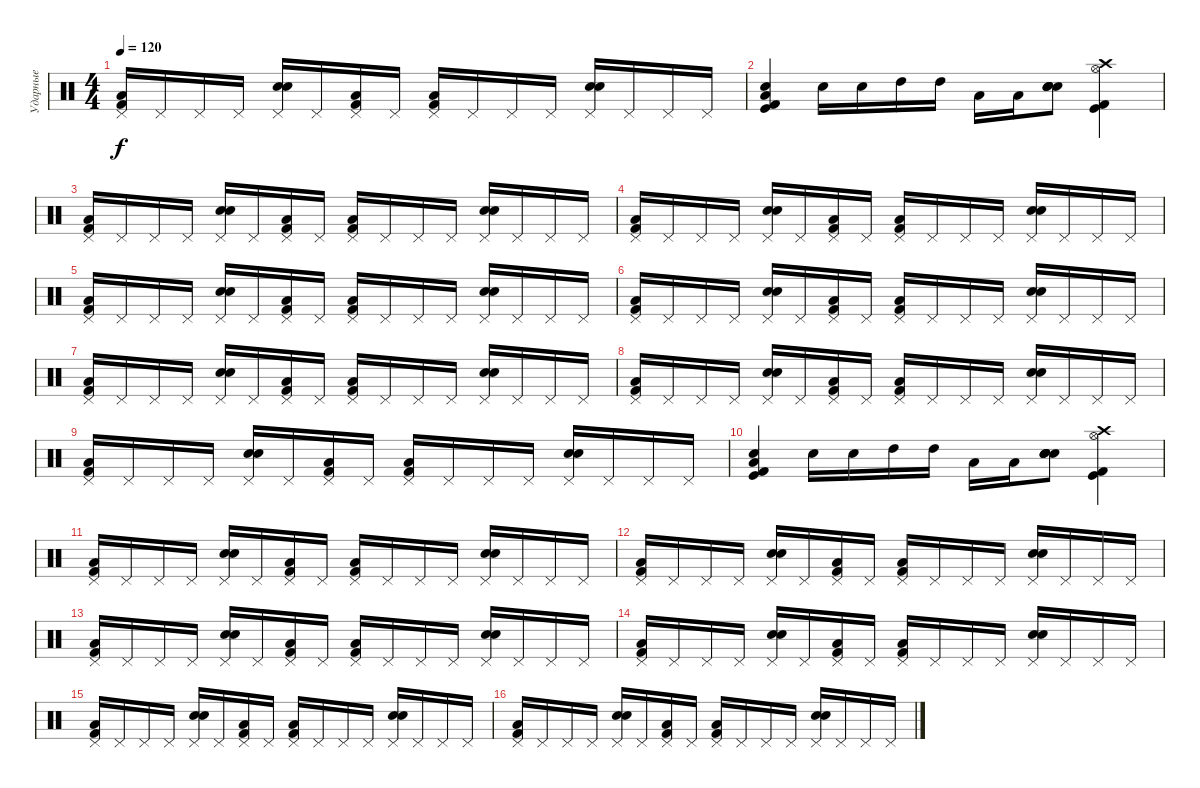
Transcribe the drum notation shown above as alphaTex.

\track ("Ударные" "Ударные") {instrument percussion}
\staff {score}
\articulation defaults
\ts (4 4)
\tempo 120
\clef neutral
\ks c
("Kick (hit) 2" "Low Floor Tom (hit)" "Pedal Hi-Hat (hit)").16{dy f} "Pedal Hi-Hat (hit)".16 "Pedal Hi-Hat (hit)".16 "Pedal Hi-Hat (hit)".16 ("Electric Snare (hit)" "Electric Snare (hit)" "Pedal Hi-Hat (hit)").16 "Pedal Hi-Hat (hit)".16 ("Kick (hit) 2" "Low Floor Tom (hit)" "Pedal Hi-Hat (hit)").16 "Pedal Hi-Hat (hit)".16 ("Kick (hit) 2" "Low Floor Tom (hit)" "Pedal Hi-Hat (hit)").16 "Pedal Hi-Hat (hit)".16 "Pedal Hi-Hat (hit)".16 "Pedal Hi-Hat (hit)".16 ("Electric Snare (hit)" "Electric Snare (hit)" "Pedal Hi-Hat (hit)").16 "Pedal Hi-Hat (hit)".16 "Pedal Hi-Hat (hit)".16 "Pedal Hi-Hat (hit)".16 |
("Low Floor Tom (hit)" "Kick (hit)" "Snare (hit) 2" "Kick (hit) 2").4 "Electric Snare (hit)".16 "Electric Snare (hit)".16 "High Tom (hit)".16 "High Tom (hit)".16 "Low Tom (hit)".16 "Low Tom (hit)".16 ("Snare (hit) 2" "Snare (hit) 2" "Snare (hit) 2" "Snare (hit) 2").8 ("Hi-Hat (open)" "Crash high (hit)" "Kick (hit)" "Kick (hit) 2").4 |
("Kick (hit) 2" "Low Floor Tom (hit)" "Pedal Hi-Hat (hit)").16 "Pedal Hi-Hat (hit)".16 "Pedal Hi-Hat (hit)".16 "Pedal Hi-Hat (hit)".16 ("Electric Snare (hit)" "Electric Snare (hit)" "Pedal Hi-Hat (hit)").16 "Pedal Hi-Hat (hit)".16 ("Kick (hit) 2" "Low Floor Tom (hit)" "Pedal Hi-Hat (hit)").16 "Pedal Hi-Hat (hit)".16 ("Kick (hit) 2" "Low Floor Tom (hit)" "Pedal Hi-Hat (hit)").16 "Pedal Hi-Hat (hit)".16 "Pedal Hi-Hat (hit)".16 "Pedal Hi-Hat (hit)".16 ("Electric Snare (hit)" "Electric Snare (hit)" "Pedal Hi-Hat (hit)").16 "Pedal Hi-Hat (hit)".16 "Pedal Hi-Hat (hit)".16 "Pedal Hi-Hat (hit)".16 |
("Kick (hit) 2" "Low Floor Tom (hit)" "Pedal Hi-Hat (hit)").16 "Pedal Hi-Hat (hit)".16 "Pedal Hi-Hat (hit)".16 "Pedal Hi-Hat (hit)".16 ("Electric Snare (hit)" "Electric Snare (hit)" "Pedal Hi-Hat (hit)").16 "Pedal Hi-Hat (hit)".16 ("Kick (hit) 2" "Low Floor Tom (hit)" "Pedal Hi-Hat (hit)").16 "Pedal Hi-Hat (hit)".16 ("Kick (hit) 2" "Low Floor Tom (hit)" "Pedal Hi-Hat (hit)").16 "Pedal Hi-Hat (hit)".16 "Pedal Hi-Hat (hit)".16 "Pedal Hi-Hat (hit)".16 ("Electric Snare (hit)" "Electric Snare (hit)" "Pedal Hi-Hat (hit)").16 "Pedal Hi-Hat (hit)".16 "Pedal Hi-Hat (hit)".16 "Pedal Hi-Hat (hit)".16 |
("Kick (hit) 2" "Low Floor Tom (hit)" "Pedal Hi-Hat (hit)").16 "Pedal Hi-Hat (hit)".16 "Pedal Hi-Hat (hit)".16 "Pedal Hi-Hat (hit)".16 ("Electric Snare (hit)" "Electric Snare (hit)" "Pedal Hi-Hat (hit)").16 "Pedal Hi-Hat (hit)".16 ("Kick (hit) 2" "Low Floor Tom (hit)" "Pedal Hi-Hat (hit)").16 "Pedal Hi-Hat (hit)".16 ("Kick (hit) 2" "Low Floor Tom (hit)" "Pedal Hi-Hat (hit)").16 "Pedal Hi-Hat (hit)".16 "Pedal Hi-Hat (hit)".16 "Pedal Hi-Hat (hit)".16 ("Electric Snare (hit)" "Electric Snare (hit)" "Pedal Hi-Hat (hit)").16 "Pedal Hi-Hat (hit)".16 "Pedal Hi-Hat (hit)".16 "Pedal Hi-Hat (hit)".16 |
("Kick (hit) 2" "Low Floor Tom (hit)" "Pedal Hi-Hat (hit)").16 "Pedal Hi-Hat (hit)".16 "Pedal Hi-Hat (hit)".16 "Pedal Hi-Hat (hit)".16 ("Electric Snare (hit)" "Electric Snare (hit)" "Pedal Hi-Hat (hit)").16 "Pedal Hi-Hat (hit)".16 ("Kick (hit) 2" "Low Floor Tom (hit)" "Pedal Hi-Hat (hit)").16 "Pedal Hi-Hat (hit)".16 ("Kick (hit) 2" "Low Floor Tom (hit)" "Pedal Hi-Hat (hit)").16 "Pedal Hi-Hat (hit)".16 "Pedal Hi-Hat (hit)".16 "Pedal Hi-Hat (hit)".16 ("Electric Snare (hit)" "Electric Snare (hit)" "Pedal Hi-Hat (hit)").16 "Pedal Hi-Hat (hit)".16 "Pedal Hi-Hat (hit)".16 "Pedal Hi-Hat (hit)".16 |
("Kick (hit) 2" "Low Floor Tom (hit)" "Pedal Hi-Hat (hit)").16 "Pedal Hi-Hat (hit)".16 "Pedal Hi-Hat (hit)".16 "Pedal Hi-Hat (hit)".16 ("Electric Snare (hit)" "Electric Snare (hit)" "Pedal Hi-Hat (hit)").16 "Pedal Hi-Hat (hit)".16 ("Kick (hit) 2" "Low Floor Tom (hit)" "Pedal Hi-Hat (hit)").16 "Pedal Hi-Hat (hit)".16 ("Kick (hit) 2" "Low Floor Tom (hit)" "Pedal Hi-Hat (hit)").16 "Pedal Hi-Hat (hit)".16 "Pedal Hi-Hat (hit)".16 "Pedal Hi-Hat (hit)".16 ("Electric Snare (hit)" "Electric Snare (hit)" "Pedal Hi-Hat (hit)").16 "Pedal Hi-Hat (hit)".16 "Pedal Hi-Hat (hit)".16 "Pedal Hi-Hat (hit)".16 |
("Kick (hit) 2" "Low Floor Tom (hit)" "Pedal Hi-Hat (hit)").16 "Pedal Hi-Hat (hit)".16 "Pedal Hi-Hat (hit)".16 "Pedal Hi-Hat (hit)".16 ("Electric Snare (hit)" "Electric Snare (hit)" "Pedal Hi-Hat (hit)").16 "Pedal Hi-Hat (hit)".16 ("Kick (hit) 2" "Low Floor Tom (hit)" "Pedal Hi-Hat (hit)").16 "Pedal Hi-Hat (hit)".16 ("Kick (hit) 2" "Low Floor Tom (hit)" "Pedal Hi-Hat (hit)").16 "Pedal Hi-Hat (hit)".16 "Pedal Hi-Hat (hit)".16 "Pedal Hi-Hat (hit)".16 ("Electric Snare (hit)" "Electric Snare (hit)" "Pedal Hi-Hat (hit)").16 "Pedal Hi-Hat (hit)".16 "Pedal Hi-Hat (hit)".16 "Pedal Hi-Hat (hit)".16 |
("Kick (hit) 2" "Low Floor Tom (hit)" "Pedal Hi-Hat (hit)").16 "Pedal Hi-Hat (hit)".16 "Pedal Hi-Hat (hit)".16 "Pedal Hi-Hat (hit)".16 ("Electric Snare (hit)" "Electric Snare (hit)" "Pedal Hi-Hat (hit)").16 "Pedal Hi-Hat (hit)".16 ("Kick (hit) 2" "Low Floor Tom (hit)" "Pedal Hi-Hat (hit)").16 "Pedal Hi-Hat (hit)".16 ("Kick (hit) 2" "Low Floor Tom (hit)" "Pedal Hi-Hat (hit)").16 "Pedal Hi-Hat (hit)".16 "Pedal Hi-Hat (hit)".16 "Pedal Hi-Hat (hit)".16 ("Electric Snare (hit)" "Electric Snare (hit)" "Pedal Hi-Hat (hit)").16 "Pedal Hi-Hat (hit)".16 "Pedal Hi-Hat (hit)".16 "Pedal Hi-Hat (hit)".16 |
("Low Floor Tom (hit)" "Kick (hit)" "Snare (hit) 2" "Kick (hit) 2").4 "Electric Snare (hit)".16 "Electric Snare (hit)".16 "High Tom (hit)".16 "High Tom (hit)".16 "Low Tom (hit)".16 "Low Tom (hit)".16 ("Snare (hit) 2" "Snare (hit) 2" "Snare (hit) 2" "Snare (hit) 2").8 ("Hi-Hat (open)" "Crash high (hit)" "Kick (hit)" "Kick (hit) 2").4 |
("Kick (hit) 2" "Low Floor Tom (hit)" "Pedal Hi-Hat (hit)").16 "Pedal Hi-Hat (hit)".16 "Pedal Hi-Hat (hit)".16 "Pedal Hi-Hat (hit)".16 ("Electric Snare (hit)" "Electric Snare (hit)" "Pedal Hi-Hat (hit)").16 "Pedal Hi-Hat (hit)".16 ("Kick (hit) 2" "Low Floor Tom (hit)" "Pedal Hi-Hat (hit)").16 "Pedal Hi-Hat (hit)".16 ("Kick (hit) 2" "Low Floor Tom (hit)" "Pedal Hi-Hat (hit)").16 "Pedal Hi-Hat (hit)".16 "Pedal Hi-Hat (hit)".16 "Pedal Hi-Hat (hit)".16 ("Electric Snare (hit)" "Electric Snare (hit)" "Pedal Hi-Hat (hit)").16 "Pedal Hi-Hat (hit)".16 "Pedal Hi-Hat (hit)".16 "Pedal Hi-Hat (hit)".16 |
("Kick (hit) 2" "Low Floor Tom (hit)" "Pedal Hi-Hat (hit)").16 "Pedal Hi-Hat (hit)".16 "Pedal Hi-Hat (hit)".16 "Pedal Hi-Hat (hit)".16 ("Electric Snare (hit)" "Electric Snare (hit)" "Pedal Hi-Hat (hit)").16 "Pedal Hi-Hat (hit)".16 ("Kick (hit) 2" "Low Floor Tom (hit)" "Pedal Hi-Hat (hit)").16 "Pedal Hi-Hat (hit)".16 ("Kick (hit) 2" "Low Floor Tom (hit)" "Pedal Hi-Hat (hit)").16 "Pedal Hi-Hat (hit)".16 "Pedal Hi-Hat (hit)".16 "Pedal Hi-Hat (hit)".16 ("Electric Snare (hit)" "Electric Snare (hit)" "Pedal Hi-Hat (hit)").16 "Pedal Hi-Hat (hit)".16 "Pedal Hi-Hat (hit)".16 "Pedal Hi-Hat (hit)".16 |
("Kick (hit) 2" "Low Floor Tom (hit)" "Pedal Hi-Hat (hit)").16 "Pedal Hi-Hat (hit)".16 "Pedal Hi-Hat (hit)".16 "Pedal Hi-Hat (hit)".16 ("Electric Snare (hit)" "Electric Snare (hit)" "Pedal Hi-Hat (hit)").16 "Pedal Hi-Hat (hit)".16 ("Kick (hit) 2" "Low Floor Tom (hit)" "Pedal Hi-Hat (hit)").16 "Pedal Hi-Hat (hit)".16 ("Kick (hit) 2" "Low Floor Tom (hit)" "Pedal Hi-Hat (hit)").16 "Pedal Hi-Hat (hit)".16 "Pedal Hi-Hat (hit)".16 "Pedal Hi-Hat (hit)".16 ("Electric Snare (hit)" "Electric Snare (hit)" "Pedal Hi-Hat (hit)").16 "Pedal Hi-Hat (hit)".16 "Pedal Hi-Hat (hit)".16 "Pedal Hi-Hat (hit)".16 |
("Kick (hit) 2" "Low Floor Tom (hit)" "Pedal Hi-Hat (hit)").16 "Pedal Hi-Hat (hit)".16 "Pedal Hi-Hat (hit)".16 "Pedal Hi-Hat (hit)".16 ("Electric Snare (hit)" "Electric Snare (hit)" "Pedal Hi-Hat (hit)").16 "Pedal Hi-Hat (hit)".16 ("Kick (hit) 2" "Low Floor Tom (hit)" "Pedal Hi-Hat (hit)").16 "Pedal Hi-Hat (hit)".16 ("Kick (hit) 2" "Low Floor Tom (hit)" "Pedal Hi-Hat (hit)").16 "Pedal Hi-Hat (hit)".16 "Pedal Hi-Hat (hit)".16 "Pedal Hi-Hat (hit)".16 ("Electric Snare (hit)" "Electric Snare (hit)" "Pedal Hi-Hat (hit)").16 "Pedal Hi-Hat (hit)".16 "Pedal Hi-Hat (hit)".16 "Pedal Hi-Hat (hit)".16 |
("Kick (hit) 2" "Low Floor Tom (hit)" "Pedal Hi-Hat (hit)").16 "Pedal Hi-Hat (hit)".16 "Pedal Hi-Hat (hit)".16 "Pedal Hi-Hat (hit)".16 ("Electric Snare (hit)" "Electric Snare (hit)" "Pedal Hi-Hat (hit)").16 "Pedal Hi-Hat (hit)".16 ("Kick (hit) 2" "Low Floor Tom (hit)" "Pedal Hi-Hat (hit)").16 "Pedal Hi-Hat (hit)".16 ("Kick (hit) 2" "Low Floor Tom (hit)" "Pedal Hi-Hat (hit)").16 "Pedal Hi-Hat (hit)".16 "Pedal Hi-Hat (hit)".16 "Pedal Hi-Hat (hit)".16 ("Electric Snare (hit)" "Electric Snare (hit)" "Pedal Hi-Hat (hit)").16 "Pedal Hi-Hat (hit)".16 "Pedal Hi-Hat (hit)".16 "Pedal Hi-Hat (hit)".16 |
("Kick (hit) 2" "Low Floor Tom (hit)" "Pedal Hi-Hat (hit)").16 "Pedal Hi-Hat (hit)".16 "Pedal Hi-Hat (hit)".16 "Pedal Hi-Hat (hit)".16 ("Electric Snare (hit)" "Electric Snare (hit)" "Pedal Hi-Hat (hit)").16 "Pedal Hi-Hat (hit)".16 ("Kick (hit) 2" "Low Floor Tom (hit)" "Pedal Hi-Hat (hit)").16 "Pedal Hi-Hat (hit)".16 ("Kick (hit) 2" "Low Floor Tom (hit)" "Pedal Hi-Hat (hit)").16 "Pedal Hi-Hat (hit)".16 "Pedal Hi-Hat (hit)".16 "Pedal Hi-Hat (hit)".16 ("Electric Snare (hit)" "Electric Snare (hit)" "Pedal Hi-Hat (hit)").16 "Pedal Hi-Hat (hit)".16 "Pedal Hi-Hat (hit)".16 "Pedal Hi-Hat (hit)".16
